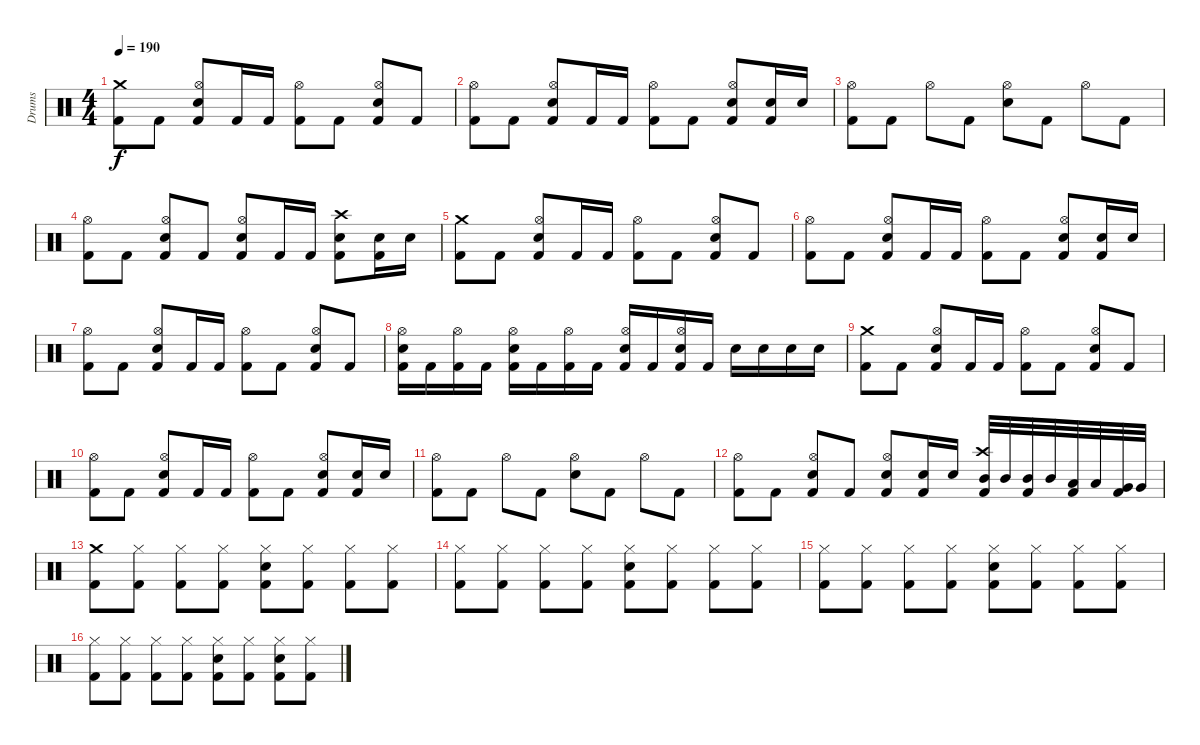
\track ("Drums" "Drums") {instrument percussion}
\staff {score}
\articulation defaults
\ts (4 4)
\tempo 190
\clef neutral
\ks c
("Crash medium (hit)" "Kick (hit) 2").8{dy f} "Kick (hit) 2".8 ("Kick (hit) 2" "Hi-Hat (open)" "Snare (hit) 2").8 "Kick (hit) 2".16 "Kick (hit) 2".16 ("Hi-Hat (open)" "Kick (hit) 2").8 "Kick (hit) 2".8 ("Kick (hit) 2" "Hi-Hat (open)" "Snare (hit) 2").8 "Kick (hit) 2".8 |
("Hi-Hat (open)" "Kick (hit) 2").8 "Kick (hit) 2".8 ("Kick (hit) 2" "Hi-Hat (open)" "Snare (hit) 2").8 "Kick (hit) 2".16 "Kick (hit) 2".16 ("Hi-Hat (open)" "Kick (hit) 2").8 "Kick (hit) 2".8 ("Kick (hit) 2" "Hi-Hat (open)" "Snare (hit) 2").8 ("Kick (hit) 2" "Snare (hit) 2").16 "Snare (hit) 2".16 |
("Hi-Hat (open)" "Kick (hit) 2").8 "Kick (hit) 2".8 "Hi-Hat (open)".8 "Kick (hit) 2".8 ("Hi-Hat (open)" "Snare (hit) 2").8 "Kick (hit) 2".8 "Hi-Hat (open)".8 "Kick (hit) 2".8 |
("Hi-Hat (open)" "Kick (hit) 2").8 "Kick (hit) 2".8 ("Kick (hit) 2" "Hi-Hat (open)" "Snare (hit) 2").8 "Kick (hit) 2".8 ("Kick (hit) 2" "Hi-Hat (open)" "Snare (hit) 2").8 "Kick (hit) 2".16 "Kick (hit) 2".16 ("Kick (hit) 2" "Crash high (hit)" "Snare (hit) 2").8 ("Kick (hit) 2" "Snare (hit) 2").16 "Snare (hit) 2".16 |
("Crash medium (hit)" "Kick (hit) 2").8 "Kick (hit) 2".8 ("Kick (hit) 2" "Hi-Hat (open)" "Snare (hit) 2").8 "Kick (hit) 2".16 "Kick (hit) 2".16 ("Hi-Hat (open)" "Kick (hit) 2").8 "Kick (hit) 2".8 ("Kick (hit) 2" "Hi-Hat (open)" "Snare (hit) 2").8 "Kick (hit) 2".8 |
("Hi-Hat (open)" "Kick (hit) 2").8 "Kick (hit) 2".8 ("Kick (hit) 2" "Hi-Hat (open)" "Snare (hit) 2").8 "Kick (hit) 2".16 "Kick (hit) 2".16 ("Hi-Hat (open)" "Kick (hit) 2").8 "Kick (hit) 2".8 ("Kick (hit) 2" "Hi-Hat (open)" "Snare (hit) 2").8 ("Kick (hit) 2" "Snare (hit) 2").16 "Snare (hit) 2".16 |
("Hi-Hat (open)" "Kick (hit) 2").8 "Kick (hit) 2".8 ("Kick (hit) 2" "Hi-Hat (open)" "Snare (hit) 2").8 "Kick (hit) 2".16 "Kick (hit) 2".16 ("Hi-Hat (open)" "Kick (hit) 2").8 "Kick (hit) 2".8 ("Kick (hit) 2" "Hi-Hat (open)" "Snare (hit) 2").8 "Kick (hit) 2".8 |
("Kick (hit) 2" "Hi-Hat (open)" "Snare (hit) 2").16 "Kick (hit) 2".16 ("Hi-Hat (open)" "Kick (hit) 2").16 "Kick (hit) 2".16 ("Kick (hit) 2" "Hi-Hat (open)" "Snare (hit) 2").16 "Kick (hit) 2".16 ("Hi-Hat (open)" "Kick (hit) 2").16 "Kick (hit) 2".16 ("Kick (hit) 2" "Hi-Hat (open)" "Snare (hit) 2").16 "Kick (hit) 2".16 ("Kick (hit) 2" "Hi-Hat (open)" "Snare (hit) 2").16 "Kick (hit) 2".16 "Snare (hit) 2".16 "Snare (hit) 2".16 "Snare (hit) 2".16 "Snare (hit) 2".16 |
("Crash medium (hit)" "Kick (hit) 2").8 "Kick (hit) 2".8 ("Kick (hit) 2" "Hi-Hat (open)" "Snare (hit) 2").8 "Kick (hit) 2".16 "Kick (hit) 2".16 ("Hi-Hat (open)" "Kick (hit) 2").8 "Kick (hit) 2".8 ("Kick (hit) 2" "Hi-Hat (open)" "Snare (hit) 2").8 "Kick (hit) 2".8 |
("Hi-Hat (open)" "Kick (hit) 2").8 "Kick (hit) 2".8 ("Kick (hit) 2" "Hi-Hat (open)" "Snare (hit) 2").8 "Kick (hit) 2".16 "Kick (hit) 2".16 ("Hi-Hat (open)" "Kick (hit) 2").8 "Kick (hit) 2".8 ("Kick (hit) 2" "Hi-Hat (open)" "Snare (hit) 2").8 ("Kick (hit) 2" "Snare (hit) 2").16 "Snare (hit) 2".16 |
("Hi-Hat (open)" "Kick (hit) 2").8 "Kick (hit) 2".8 "Hi-Hat (open)".8 "Kick (hit) 2".8 ("Hi-Hat (open)" "Snare (hit) 2").8 "Kick (hit) 2".8 "Hi-Hat (open)".8 "Kick (hit) 2".8 |
("Hi-Hat (open)" "Kick (hit) 2").8 "Kick (hit) 2".8 ("Kick (hit) 2" "Hi-Hat (open)" "Snare (hit) 2").8 "Kick (hit) 2".8 ("Kick (hit) 2" "Hi-Hat (open)" "Snare (hit) 2").8 ("Kick (hit) 2" "Snare (hit) 2").16 "Snare (hit) 2".16 ("Kick (hit) 2" "Crash high (hit)" "Mid Tom (hit)").32 "Mid Tom (hit)".32 ("Kick (hit) 2" "Mid Tom (hit)").32 "Mid Tom (hit)".32 ("Kick (hit) 2" "Low Tom (hit)").32 "Low Tom (hit)".32 ("Kick (hit) 2" "Very Low Tom (hit)").32 "Very Low Tom (hit)".32 |
("Crash medium (hit)" "Kick (hit) 2").8 ("Hi-Hat (closed)" "Kick (hit) 2").8 ("Hi-Hat (closed)" "Kick (hit) 2").8 ("Hi-Hat (closed)" "Kick (hit) 2").8 ("Kick (hit) 2" "Hi-Hat (closed)" "Snare (hit) 2").8 ("Hi-Hat (closed)" "Kick (hit) 2").8 ("Hi-Hat (closed)" "Kick (hit) 2").8 ("Hi-Hat (closed)" "Kick (hit) 2").8 |
("Hi-Hat (closed)" "Kick (hit) 2").8 ("Hi-Hat (closed)" "Kick (hit) 2").8 ("Hi-Hat (closed)" "Kick (hit) 2").8 ("Hi-Hat (closed)" "Kick (hit) 2").8 ("Kick (hit) 2" "Hi-Hat (closed)" "Snare (hit) 2").8 ("Hi-Hat (closed)" "Kick (hit) 2").8 ("Hi-Hat (closed)" "Kick (hit) 2").8 ("Hi-Hat (closed)" "Kick (hit) 2").8 |
("Hi-Hat (closed)" "Kick (hit) 2").8 ("Hi-Hat (closed)" "Kick (hit) 2").8 ("Hi-Hat (closed)" "Kick (hit) 2").8 ("Hi-Hat (closed)" "Kick (hit) 2").8 ("Kick (hit) 2" "Hi-Hat (closed)" "Snare (hit) 2").8 ("Hi-Hat (closed)" "Kick (hit) 2").8 ("Hi-Hat (closed)" "Kick (hit) 2").8 ("Hi-Hat (closed)" "Kick (hit) 2").8 |
("Hi-Hat (closed)" "Kick (hit) 2").8 ("Hi-Hat (closed)" "Kick (hit) 2").8 ("Hi-Hat (closed)" "Kick (hit) 2").8 ("Hi-Hat (closed)" "Kick (hit) 2").8 ("Kick (hit) 2" "Hi-Hat (closed)" "Snare (hit) 2").8 ("Hi-Hat (closed)" "Kick (hit) 2").8 ("Kick (hit) 2" "Hi-Hat (closed)" "Snare (hit) 2").8 ("Hi-Hat (closed)" "Kick (hit) 2").8
